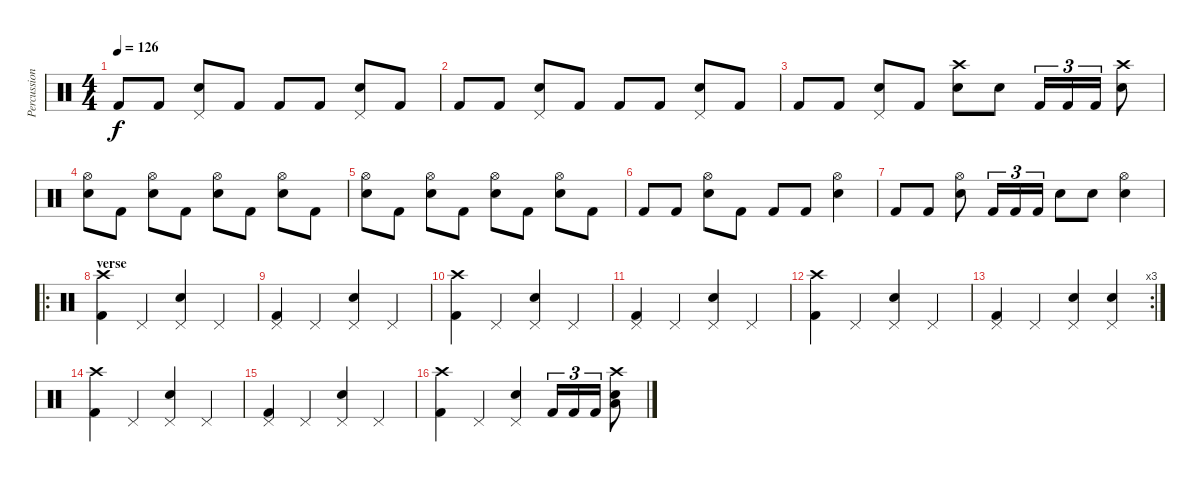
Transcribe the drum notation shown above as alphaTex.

\track ("Percussion" "Percussion") {instrument percussion}
\staff {score}
\articulation defaults
\ts (4 4)
\tempo 126
\clef neutral
\ks c "Kick (hit) 2".8{dy f} "Kick (hit) 2".8
("Pedal Hi-Hat (hit)" "Electric Snare (hit)").8 "Kick (hit) 2".8 "Kick (hit) 2".8 "Kick (hit) 2".8 ("Pedal Hi-Hat (hit)" "Electric Snare (hit)").8 "Kick (hit) 2".8 |
"Kick (hit) 2".8 "Kick (hit) 2".8 ("Pedal Hi-Hat (hit)" "Electric Snare (hit)").8 "Kick (hit) 2".8 "Kick (hit) 2".8 "Kick (hit) 2".8 ("Pedal Hi-Hat (hit)" "Electric Snare (hit)").8 "Kick (hit) 2".8 |
"Kick (hit) 2".8 "Kick (hit) 2".8 ("Pedal Hi-Hat (hit)" "Electric Snare (hit)").8 "Kick (hit) 2".8 ("Crash high (hit)" "Electric Snare (hit)").8 "Electric Snare (hit)".8 "Kick (hit) 2".16{tu (3 2)} "Kick (hit) 2".16{tu (3 2)} "Kick (hit) 2".16{tu (3 2)} ("Crash high (hit)" "Electric Snare (hit)").8 |
("Hi-Hat (open)" "Electric Snare (hit)").8 "Kick (hit) 2".8 ("Hi-Hat (open)" "Electric Snare (hit)").8 "Kick (hit) 2".8 ("Hi-Hat (open)" "Electric Snare (hit)").8 "Kick (hit) 2".8 ("Hi-Hat (open)" "Electric Snare (hit)").8 "Kick (hit) 2".8 |
("Hi-Hat (open)" "Electric Snare (hit)").8 "Kick (hit) 2".8 ("Hi-Hat (open)" "Electric Snare (hit)").8 "Kick (hit) 2".8 ("Hi-Hat (open)" "Electric Snare (hit)").8 "Kick (hit) 2".8 ("Hi-Hat (open)" "Electric Snare (hit)").8 "Kick (hit) 2".8 |
"Kick (hit) 2".8 "Kick (hit) 2".8 ("Hi-Hat (open)" "Electric Snare (hit)").8 "Kick (hit) 2".8 "Kick (hit) 2".8 "Kick (hit) 2".8 ("Hi-Hat (open)" "Electric Snare (hit)").4 |
"Kick (hit) 2".8 "Kick (hit) 2".8 ("Hi-Hat (open)" "Electric Snare (hit)").8 "Kick (hit) 2".16{tu (3 2)} "Kick (hit) 2".16{tu (3 2)} "Kick (hit) 2".16{tu (3 2)} "Electric Snare (hit)".8 "Electric Snare (hit)".8 ("Hi-Hat (open)" "Electric Snare (hit)").4 |
\ro
\section ("" "verse")
("Crash high (hit)" "Kick (hit) 2").4 "Pedal Hi-Hat (hit)".4 ("Pedal Hi-Hat (hit)" "Electric Snare (hit)").4 "Pedal Hi-Hat (hit)".4 |
("Pedal Hi-Hat (hit)" "Kick (hit) 2").4 "Pedal Hi-Hat (hit)".4 ("Pedal Hi-Hat (hit)" "Electric Snare (hit)").4 "Pedal Hi-Hat (hit)".4 |
("Crash high (hit)" "Kick (hit) 2").4 "Pedal Hi-Hat (hit)".4 ("Pedal Hi-Hat (hit)" "Electric Snare (hit)").4 "Pedal Hi-Hat (hit)".4 |
("Pedal Hi-Hat (hit)" "Kick (hit) 2").4 "Pedal Hi-Hat (hit)".4 ("Pedal Hi-Hat (hit)" "Electric Snare (hit)").4 "Pedal Hi-Hat (hit)".4 |
("Crash high (hit)" "Kick (hit) 2").4 "Pedal Hi-Hat (hit)".4 ("Pedal Hi-Hat (hit)" "Electric Snare (hit)").4 "Pedal Hi-Hat (hit)".4 |
\rc 3
("Pedal Hi-Hat (hit)" "Kick (hit) 2").4 "Pedal Hi-Hat (hit)".4 ("Pedal Hi-Hat (hit)" "Electric Snare (hit)").4 ("Pedal Hi-Hat (hit)" "Electric Snare (hit)").4 |
("Crash high (hit)" "Kick (hit) 2").4 "Pedal Hi-Hat (hit)".4 ("Pedal Hi-Hat (hit)" "Electric Snare (hit)").4 "Pedal Hi-Hat (hit)".4 |
("Pedal Hi-Hat (hit)" "Kick (hit) 2").4 "Pedal Hi-Hat (hit)".4 ("Pedal Hi-Hat (hit)" "Electric Snare (hit)").4 "Pedal Hi-Hat (hit)".4 |
("Crash high (hit)" "Kick (hit) 2").4 "Pedal Hi-Hat (hit)".4 ("Pedal Hi-Hat (hit)" "Electric Snare (hit)").4 "Kick (hit) 2".16{tu (3 2)} "Kick (hit) 2".16{tu (3 2)} "Kick (hit) 2".16{tu (3 2)} ("Crash high (hit)" "Low Tom (hit)" "Electric Snare (hit)").8
